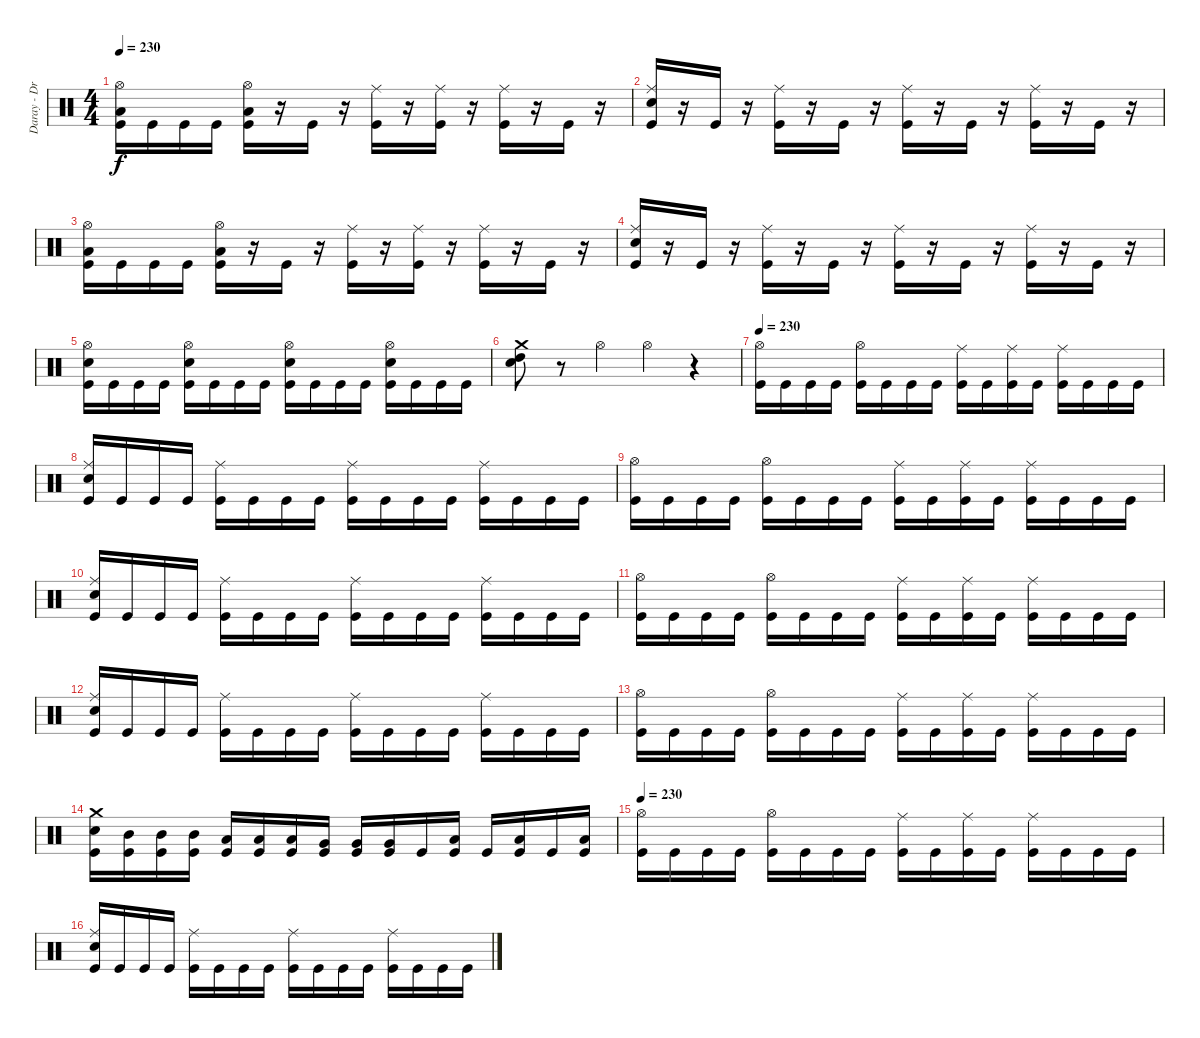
\track ("Daray - Drums" "Daray - Dr") {instrument percussion}
\staff {score}
\articulation defaults
\ts (4 4)
\tempo 230
\clef neutral
\ks c
("Hi-Hat (open)" "Low Floor Tom (hit)" "Kick (hit)").16{dy f} "Kick (hit)".16 "Kick (hit)".16 "Kick (hit)".16 ("Hi-Hat (open)" "Low Floor Tom (hit)" "Kick (hit)").16 r.16 "Kick (hit)".16 r.16 ("Ride (middle)" "Kick (hit)").16 r.16 ("Ride (middle)" "Kick (hit)").16 r.16 ("Ride (middle)" "Kick (hit)").16 r.16 "Kick (hit)".16 r.16 |
("Ride (middle)" "Electric Snare (hit)" "Kick (hit)").16 r.16 "Kick (hit)".16 r.16 ("Ride (middle)" "Kick (hit)").16 r.16 "Kick (hit)".16 r.16 ("Ride (middle)" "Kick (hit)").16 r.16 "Kick (hit)".16 r.16 ("Ride (middle)" "Kick (hit)").16 r.16 "Kick (hit)".16 r.16 |
("Hi-Hat (open)" "Low Floor Tom (hit)" "Kick (hit)").16 "Kick (hit)".16 "Kick (hit)".16 "Kick (hit)".16 ("Hi-Hat (open)" "Low Floor Tom (hit)" "Kick (hit)").16 r.16 "Kick (hit)".16 r.16 ("Ride (middle)" "Kick (hit)").16 r.16 ("Ride (middle)" "Kick (hit)").16 r.16 ("Ride (middle)" "Kick (hit)").16 r.16 "Kick (hit)".16 r.16 |
("Ride (middle)" "Electric Snare (hit)" "Kick (hit)").16 r.16 "Kick (hit)".16 r.16 ("Ride (middle)" "Kick (hit)").16 r.16 "Kick (hit)".16 r.16 ("Ride (middle)" "Kick (hit)").16 r.16 "Kick (hit)".16 r.16 ("Ride (middle)" "Kick (hit)").16 r.16 "Kick (hit)".16 r.16 |
("Hi-Hat (open)" "Electric Snare (hit)" "Kick (hit)").16 "Kick (hit)".16 "Kick (hit)".16 "Kick (hit)".16 ("Hi-Hat (open)" "Electric Snare (hit)" "Kick (hit)").16 "Kick (hit)".16 "Kick (hit)".16 "Kick (hit)".16 ("Hi-Hat (open)" "Electric Snare (hit)" "Kick (hit)").16 "Kick (hit)".16 "Kick (hit)".16 "Kick (hit)".16 ("Hi-Hat (open)" "Electric Snare (hit)" "Kick (hit)").16 "Kick (hit)".16 "Kick (hit)".16 "Kick (hit)".16 |
("Crash medium (hit)" "Electric Snare (hit)" "High Tom (hit)").8 r.8 "Hi-Hat (open)".4 "Hi-Hat (open)".4 r.4 |
\tempo 230
("Hi-Hat (open)" "Kick (hit)").16 "Kick (hit)".16 "Kick (hit)".16 "Kick (hit)".16 ("Hi-Hat (open)" "Kick (hit)").16 "Kick (hit)".16 "Kick (hit)".16 "Kick (hit)".16 ("Ride (middle)" "Kick (hit)").16 "Kick (hit)".16 ("Ride (middle)" "Kick (hit)").16 "Kick (hit)".16 ("Ride (middle)" "Kick (hit)").16 "Kick (hit)".16 "Kick (hit)".16 "Kick (hit)".16 |
("Ride (middle)" "Electric Snare (hit)" "Kick (hit)").16 "Kick (hit)".16 "Kick (hit)".16 "Kick (hit)".16 ("Ride (middle)" "Kick (hit)").16 "Kick (hit)".16 "Kick (hit)".16 "Kick (hit)".16 ("Ride (middle)" "Kick (hit)").16 "Kick (hit)".16 "Kick (hit)".16 "Kick (hit)".16 ("Ride (middle)" "Kick (hit)").16 "Kick (hit)".16 "Kick (hit)".16 "Kick (hit)".16 |
("Hi-Hat (open)" "Kick (hit)").16 "Kick (hit)".16 "Kick (hit)".16 "Kick (hit)".16 ("Hi-Hat (open)" "Kick (hit)").16 "Kick (hit)".16 "Kick (hit)".16 "Kick (hit)".16 ("Ride (middle)" "Kick (hit)").16 "Kick (hit)".16 ("Ride (middle)" "Kick (hit)").16 "Kick (hit)".16 ("Ride (middle)" "Kick (hit)").16 "Kick (hit)".16 "Kick (hit)".16 "Kick (hit)".16 |
("Ride (middle)" "Electric Snare (hit)" "Kick (hit)").16 "Kick (hit)".16 "Kick (hit)".16 "Kick (hit)".16 ("Ride (middle)" "Kick (hit)").16 "Kick (hit)".16 "Kick (hit)".16 "Kick (hit)".16 ("Ride (middle)" "Kick (hit)").16 "Kick (hit)".16 "Kick (hit)".16 "Kick (hit)".16 ("Ride (middle)" "Kick (hit)").16 "Kick (hit)".16 "Kick (hit)".16 "Kick (hit)".16 |
("Hi-Hat (open)" "Kick (hit)").16 "Kick (hit)".16 "Kick (hit)".16 "Kick (hit)".16 ("Hi-Hat (open)" "Kick (hit)").16 "Kick (hit)".16 "Kick (hit)".16 "Kick (hit)".16 ("Ride (middle)" "Kick (hit)").16 "Kick (hit)".16 ("Ride (middle)" "Kick (hit)").16 "Kick (hit)".16 ("Ride (middle)" "Kick (hit)").16 "Kick (hit)".16 "Kick (hit)".16 "Kick (hit)".16 |
("Ride (middle)" "Electric Snare (hit)" "Kick (hit)").16 "Kick (hit)".16 "Kick (hit)".16 "Kick (hit)".16 ("Ride (middle)" "Kick (hit)").16 "Kick (hit)".16 "Kick (hit)".16 "Kick (hit)".16 ("Ride (middle)" "Kick (hit)").16 "Kick (hit)".16 "Kick (hit)".16 "Kick (hit)".16 ("Ride (middle)" "Kick (hit)").16 "Kick (hit)".16 "Kick (hit)".16 "Kick (hit)".16 |
("Hi-Hat (open)" "Kick (hit)").16 "Kick (hit)".16 "Kick (hit)".16 "Kick (hit)".16 ("Hi-Hat (open)" "Kick (hit)").16 "Kick (hit)".16 "Kick (hit)".16 "Kick (hit)".16 ("Ride (middle)" "Kick (hit)").16 "Kick (hit)".16 ("Ride (middle)" "Kick (hit)").16 "Kick (hit)".16 ("Ride (middle)" "Kick (hit)").16 "Kick (hit)".16 "Kick (hit)".16 "Kick (hit)".16 |
("Crash medium (hit)" "Electric Snare (hit)" "Kick (hit)").16 ("Mid Tom (hit)" "Kick (hit)").16 ("Mid Tom (hit)" "Kick (hit)").16 ("Mid Tom (hit)" "Kick (hit)").16 ("Low Tom (hit)" "Kick (hit)").16 ("Low Tom (hit)" "Kick (hit)").16 ("Low Tom (hit)" "Kick (hit)").16 ("Very Low Tom (hit)" "Kick (hit)").16 ("Very Low Tom (hit)" "Kick (hit)").16 ("Very Low Tom (hit)" "Kick (hit)").16 "Kick (hit)".16 ("Low Floor Tom (hit)" "Kick (hit)").16 "Kick (hit)".16 ("Low Floor Tom (hit)" "Kick (hit)").16 "Kick (hit)".16 ("Low Floor Tom (hit)" "Kick (hit)").16 |
\tempo 230
("Hi-Hat (open)" "Kick (hit)").16 "Kick (hit)".16 "Kick (hit)".16 "Kick (hit)".16 ("Hi-Hat (open)" "Kick (hit)").16 "Kick (hit)".16 "Kick (hit)".16 "Kick (hit)".16 ("Ride (middle)" "Kick (hit)").16 "Kick (hit)".16 ("Ride (middle)" "Kick (hit)").16 "Kick (hit)".16 ("Ride (middle)" "Kick (hit)").16 "Kick (hit)".16 "Kick (hit)".16 "Kick (hit)".16 |
("Ride (middle)" "Electric Snare (hit)" "Kick (hit)").16 "Kick (hit)".16 "Kick (hit)".16 "Kick (hit)".16 ("Ride (middle)" "Kick (hit)").16 "Kick (hit)".16 "Kick (hit)".16 "Kick (hit)".16 ("Ride (middle)" "Kick (hit)").16 "Kick (hit)".16 "Kick (hit)".16 "Kick (hit)".16 ("Ride (middle)" "Kick (hit)").16 "Kick (hit)".16 "Kick (hit)".16 "Kick (hit)".16
